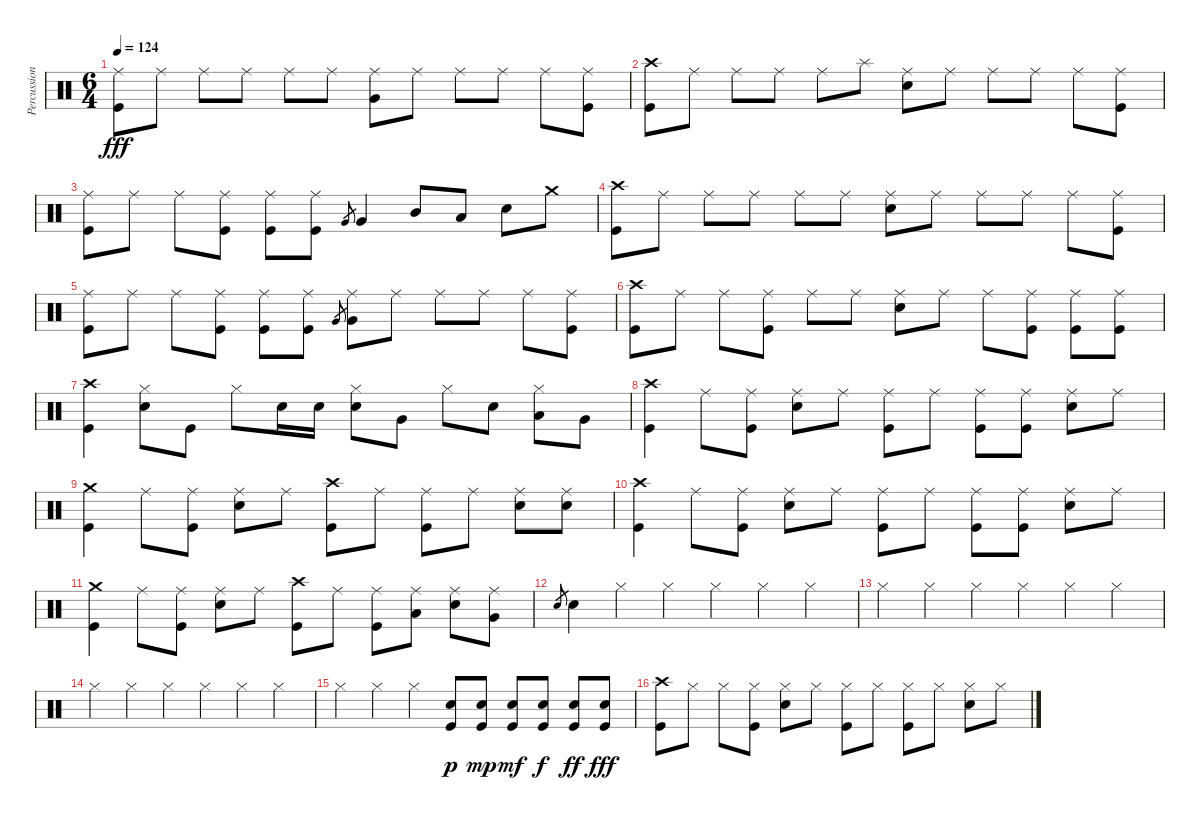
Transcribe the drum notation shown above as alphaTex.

\track ("Percussion" "Percussion") {instrument percussion}
\staff {score}
\articulation defaults
\ts (6 4)
\tempo 124
\clef neutral
\ks c
("Ride (middle)" "Kick (hit)").8{dy fff} "Ride (middle)".8 "Ride (middle)".8 "Ride (middle)".8 "Ride (middle)".8 "Ride (middle)".8 ("Ride (middle)" "Very Low Tom (hit)").8 "Ride (middle)".8 "Ride (middle)".8 "Ride (middle)".8 "Ride (middle)".8 ("Ride (middle)" "Kick (hit)").8 |
("Crash high (hit)" "Kick (hit)").8 "Ride (middle)".8 "Ride (middle)".8 "Ride (middle)".8 "Ride (middle)".8 "Splash (hit)".8 ("Ride (middle)" "Snare (hit) 2").8 "Ride (middle)".8 "Ride (middle)".8 "Ride (middle)".8 "Ride (middle)".8 ("Ride (middle)" "Kick (hit)").8 |
("Ride (middle)" "Kick (hit)").8 "Ride (middle)".8 "Ride (middle)".8 ("Ride (middle)" "Kick (hit)").8 ("Ride (middle)" "Kick (hit)").8 ("Ride (middle)" "Kick (hit)").8 "Very Low Tom (hit)".8{gr} "Very Low Tom (hit)".4 "Mid Tom (hit)".8 "Low Tom (hit)".8 "Snare (hit) 2".8 "Crash medium (hit)".8 |
("Crash high (hit)" "Kick (hit)").8 "Ride (middle)".8 "Ride (middle)".8 "Ride (middle)".8 "Ride (middle)".8 "Ride (middle)".8 ("Ride (middle)" "Snare (hit) 2").8 "Ride (middle)".8 "Ride (middle)".8 "Ride (middle)".8 "Ride (middle)".8 ("Ride (middle)" "Kick (hit)").8 |
("Ride (middle)" "Kick (hit)").8 "Ride (middle)".8 "Ride (middle)".8 ("Ride (middle)" "Kick (hit)").8 ("Ride (middle)" "Kick (hit)").8 ("Ride (middle)" "Kick (hit)").8 "Very Low Tom (hit)".8{gr} ("Ride (middle)" "Very Low Tom (hit)").8 "Ride (middle)".8 "Ride (middle)".8 "Ride (middle)".8 "Ride (middle)".8 ("Ride (middle)" "Kick (hit)").8 |
("Crash high (hit)" "Kick (hit)").8 "Ride (middle)".8 "Ride (middle)".8 ("Ride (middle)" "Kick (hit)").8 "Ride (middle)".8 "Ride (middle)".8 ("Ride (middle)" "Snare (hit) 2").8 "Ride (middle)".8 "Ride (middle)".8 ("Ride (middle)" "Kick (hit)").8 ("Ride (middle)" "Kick (hit)").8 ("Ride (middle)" "Kick (hit)").8 |
("Crash high (hit)" "Kick (hit)").4 ("Hi-Hat (closed)" "Snare (hit) 2").8 "Kick (hit)".8 "Hi-Hat (closed)".8 "Snare (hit) 2".16 "Snare (hit) 2".16 ("Hi-Hat (closed)" "Snare (hit) 2").8 "Very Low Tom (hit)".8 "Hi-Hat (closed)".8 "Snare (hit) 2".8 ("Hi-Hat (closed)" "Low Tom (hit)").8 "Very Low Tom (hit)".8 |
("Crash high (hit)" "Kick (hit)").4 "Ride (middle)".8 ("Ride (middle)" "Kick (hit)").8 ("Ride (middle)" "Snare (hit) 2").8 "Ride (middle)".8 ("Ride (middle)" "Kick (hit)").8 "Ride (middle)".8 ("Ride (middle)" "Kick (hit)").8 ("Ride (middle)" "Kick (hit)").8 ("Ride (middle)" "Snare (hit) 2").8 "Ride (middle)".8 |
("Crash medium (hit)" "Kick (hit)").4 "Ride (middle)".8 ("Ride (middle)" "Kick (hit)").8 ("Ride (middle)" "Snare (hit) 2").8 "Ride (middle)".8 ("Crash high (hit)" "Kick (hit)").8 "Ride (middle)".8 ("Ride (middle)" "Kick (hit)").8 "Ride (middle)".8 ("Ride (middle)" "Snare (hit) 2").8 ("Ride (middle)" "Snare (hit) 2").8 |
("Crash high (hit)" "Kick (hit)").4 "Ride (middle)".8 ("Ride (middle)" "Kick (hit)").8 ("Ride (middle)" "Snare (hit) 2").8 "Ride (middle)".8 ("Ride (middle)" "Kick (hit)").8 "Ride (middle)".8 ("Ride (middle)" "Kick (hit)").8 ("Ride (middle)" "Kick (hit)").8 ("Ride (middle)" "Snare (hit) 2").8 "Ride (middle)".8 |
("Crash medium (hit)" "Kick (hit)").4 "Ride (middle)".8 ("Ride (middle)" "Kick (hit)").8 ("Ride (middle)" "Snare (hit) 2").8 "Ride (middle)".8 ("Crash high (hit)" "Kick (hit)").8 "Ride (middle)".8 ("Ride (middle)" "Kick (hit)").8 ("Ride (middle)" "Low Tom (hit)").8 ("Ride (middle)" "Snare (hit) 2").8 ("Ride (middle)" "Very Low Tom (hit)").8 |
"Snare (hit) 2".8{gr} "Snare (hit) 2".4 "Hi-Hat (closed)".4 "Hi-Hat (closed)".4 "Hi-Hat (closed)".4 "Hi-Hat (closed)".4 "Hi-Hat (closed)".4 |
"Hi-Hat (closed)".4 "Hi-Hat (closed)".4 "Hi-Hat (closed)".4 "Hi-Hat (closed)".4 "Hi-Hat (closed)".4 "Hi-Hat (closed)".4 |
"Hi-Hat (closed)".4 "Hi-Hat (closed)".4 "Hi-Hat (closed)".4 "Hi-Hat (closed)".4 "Hi-Hat (closed)".4 "Hi-Hat (closed)".4 |
"Hi-Hat (closed)".4 "Hi-Hat (closed)".4 "Hi-Hat (closed)".4 ("Snare (hit) 2" "Kick (hit)").8{dy p} ("Snare (hit) 2" "Kick (hit)").8{dy mp} ("Snare (hit) 2" "Kick (hit)").8{dy mf} ("Snare (hit) 2" "Kick (hit)").8{dy f} ("Snare (hit) 2" "Kick (hit)").8{dy ff} ("Snare (hit) 2" "Kick (hit)").8{dy fff} |
("Crash high (hit)" "Kick (hit)").8 "Hi-Hat (closed)".8 "Hi-Hat (closed)".8 ("Hi-Hat (closed)" "Kick (hit)").8 ("Hi-Hat (closed)" "Snare (hit) 2").8 "Hi-Hat (closed)".8 ("Hi-Hat (closed)" "Kick (hit)").8 "Hi-Hat (closed)".8 ("Hi-Hat (closed)" "Kick (hit)").8 "Hi-Hat (closed)".8 ("Hi-Hat (closed)" "Snare (hit) 2").8 "Hi-Hat (closed)".8
